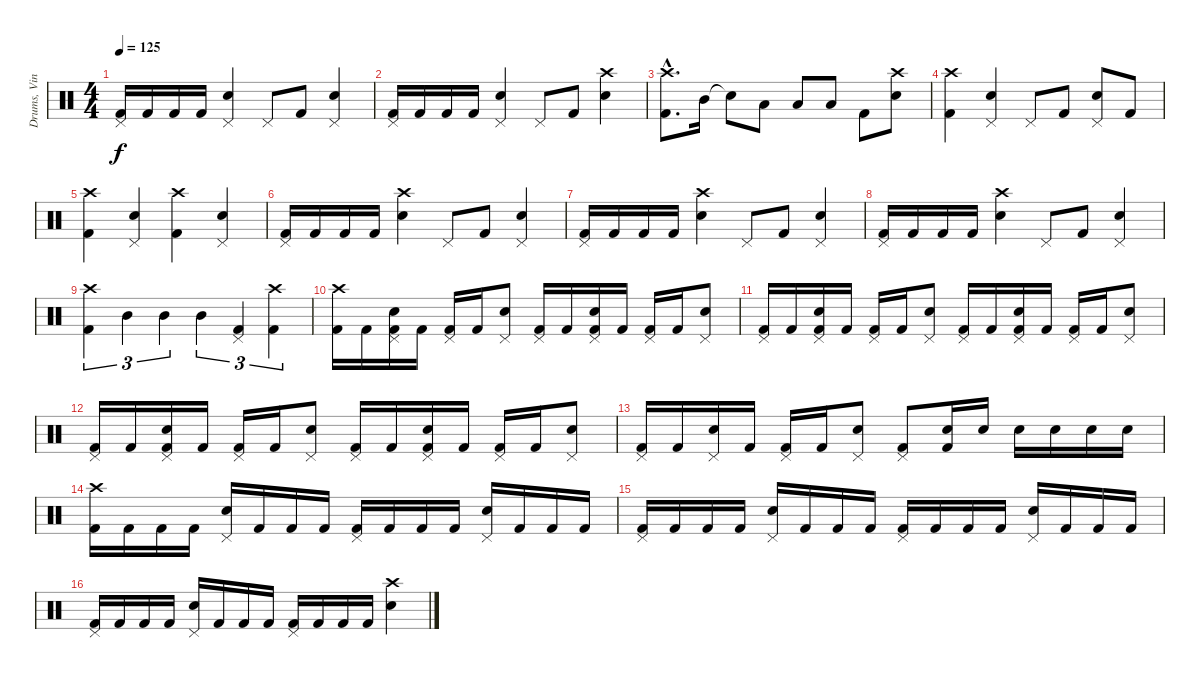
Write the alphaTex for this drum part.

\track ("Drums, Vinnie" "Drums, Vin") {instrument percussion}
\staff {score}
\articulation defaults
\ts (4 4)
\tempo 125
\clef neutral
\ks c
("Pedal Hi-Hat (hit)" "Kick (hit) 2").16{dy f} "Kick (hit) 2".16 "Kick (hit) 2".16 "Kick (hit) 2".16 ("Pedal Hi-Hat (hit)" "Electric Snare (hit)").4 "Pedal Hi-Hat (hit)".8 "Kick (hit) 2".8 ("Pedal Hi-Hat (hit)" "Electric Snare (hit)").4 |
("Pedal Hi-Hat (hit)" "Kick (hit) 2").16 "Kick (hit) 2".16 "Kick (hit) 2".16 "Kick (hit) 2".16 ("Pedal Hi-Hat (hit)" "Electric Snare (hit)").4 "Pedal Hi-Hat (hit)".8 "Kick (hit) 2".8 ("Crash high (hit)" "Electric Snare (hit)").4 |
("Crash high (hit)"{hac} "Kick (hit) 2"{hac}).8{d} "Mid Tom (hit)".16 "Snare (hit)"{t}.8 "Low Tom (hit)".8 "Low Tom (hit)".8 "Low Tom (hit)".8 "Kick (hit) 2".8 ("Crash high (hit)" "Electric Snare (hit)").8 |
("Crash high (hit)" "Kick (hit) 2").4 ("Pedal Hi-Hat (hit)" "Electric Snare (hit)").4 "Pedal Hi-Hat (hit)".8 "Kick (hit) 2".8 ("Pedal Hi-Hat (hit)" "Electric Snare (hit)").8 "Kick (hit) 2".8 |
("Crash high (hit)" "Kick (hit) 2").4 ("Pedal Hi-Hat (hit)" "Electric Snare (hit)").4 ("Crash high (hit)" "Kick (hit) 2").4 ("Pedal Hi-Hat (hit)" "Electric Snare (hit)").4 |
("Pedal Hi-Hat (hit)" "Kick (hit) 2").16 "Kick (hit) 2".16 "Kick (hit) 2".16 "Kick (hit) 2".16 ("Crash high (hit)" "Electric Snare (hit)").4 "Pedal Hi-Hat (hit)".8 "Kick (hit) 2".8 ("Pedal Hi-Hat (hit)" "Electric Snare (hit)").4 |
("Pedal Hi-Hat (hit)" "Kick (hit) 2").16 "Kick (hit) 2".16 "Kick (hit) 2".16 "Kick (hit) 2".16 ("Crash high (hit)" "Electric Snare (hit)").4 "Pedal Hi-Hat (hit)".8 "Kick (hit) 2".8 ("Pedal Hi-Hat (hit)" "Electric Snare (hit)").4 |
("Pedal Hi-Hat (hit)" "Kick (hit) 2").16 "Kick (hit) 2".16 "Kick (hit) 2".16 "Kick (hit) 2".16 ("Crash high (hit)" "Electric Snare (hit)").4 "Pedal Hi-Hat (hit)".8 "Kick (hit) 2".8 ("Pedal Hi-Hat (hit)" "Electric Snare (hit)").4 |
("Crash high (hit)" "Kick (hit) 2").4{tu (3 2)} "Mid Tom (hit)".4{tu (3 2)} "Mid Tom (hit)".4{tu (3 2)} "Mid Tom (hit)".4{tu (3 2)} ("Pedal Hi-Hat (hit)" "Kick (hit) 2").4{tu (3 2)} ("Crash high (hit)" "Kick (hit) 2").4{tu (3 2)} |
("Crash high (hit)" "Kick (hit) 2").16 "Kick (hit) 2".16 ("Pedal Hi-Hat (hit)" "Electric Snare (hit)" "Kick (hit) 2").16 "Kick (hit) 2".16 ("Pedal Hi-Hat (hit)" "Kick (hit) 2").16 "Kick (hit) 2".16 ("Pedal Hi-Hat (hit)" "Electric Snare (hit)").8 ("Pedal Hi-Hat (hit)" "Kick (hit) 2").16 "Kick (hit) 2".16 ("Pedal Hi-Hat (hit)" "Electric Snare (hit)" "Kick (hit) 2").16 "Kick (hit) 2".16 ("Pedal Hi-Hat (hit)" "Kick (hit) 2").16 "Kick (hit) 2".16 ("Pedal Hi-Hat (hit)" "Electric Snare (hit)").8 |
("Pedal Hi-Hat (hit)" "Kick (hit) 2").16 "Kick (hit) 2".16 ("Pedal Hi-Hat (hit)" "Electric Snare (hit)" "Kick (hit) 2").16 "Kick (hit) 2".16 ("Pedal Hi-Hat (hit)" "Kick (hit) 2").16 "Kick (hit) 2".16 ("Pedal Hi-Hat (hit)" "Electric Snare (hit)").8 ("Pedal Hi-Hat (hit)" "Kick (hit) 2").16 "Kick (hit) 2".16 ("Pedal Hi-Hat (hit)" "Electric Snare (hit)" "Kick (hit) 2").16 "Kick (hit) 2".16 ("Pedal Hi-Hat (hit)" "Kick (hit) 2").16 "Kick (hit) 2".16 ("Pedal Hi-Hat (hit)" "Electric Snare (hit)").8 |
("Pedal Hi-Hat (hit)" "Kick (hit) 2").16 "Kick (hit) 2".16 ("Pedal Hi-Hat (hit)" "Electric Snare (hit)" "Kick (hit) 2").16 "Kick (hit) 2".16 ("Pedal Hi-Hat (hit)" "Kick (hit) 2").16 "Kick (hit) 2".16 ("Pedal Hi-Hat (hit)" "Electric Snare (hit)").8 ("Pedal Hi-Hat (hit)" "Kick (hit) 2").16 "Kick (hit) 2".16 ("Pedal Hi-Hat (hit)" "Electric Snare (hit)" "Kick (hit) 2").16 "Kick (hit) 2".16 ("Pedal Hi-Hat (hit)" "Kick (hit) 2").16 "Kick (hit) 2".16 ("Pedal Hi-Hat (hit)" "Electric Snare (hit)").8 |
("Pedal Hi-Hat (hit)" "Kick (hit) 2").16 "Kick (hit) 2".16 ("Pedal Hi-Hat (hit)" "Electric Snare (hit)").16 "Kick (hit) 2".16 ("Pedal Hi-Hat (hit)" "Kick (hit) 2").16 "Kick (hit) 2".16 ("Pedal Hi-Hat (hit)" "Electric Snare (hit)").8 ("Pedal Hi-Hat (hit)" "Kick (hit) 2").8 ("Electric Snare (hit)" "Kick (hit) 2").16 "Electric Snare (hit)".16 "Electric Snare (hit)".16 "Electric Snare (hit)".16 "Electric Snare (hit)".16 "Electric Snare (hit)".16 |
("Crash high (hit)" "Kick (hit) 2").16 "Kick (hit) 2".16 "Kick (hit) 2".16 "Kick (hit) 2".16 ("Pedal Hi-Hat (hit)" "Electric Snare (hit)").16 "Kick (hit) 2".16 "Kick (hit) 2".16 "Kick (hit) 2".16 ("Pedal Hi-Hat (hit)" "Kick (hit) 2").16 "Kick (hit) 2".16 "Kick (hit) 2".16 "Kick (hit) 2".16 ("Pedal Hi-Hat (hit)" "Electric Snare (hit)").16 "Kick (hit) 2".16 "Kick (hit) 2".16 "Kick (hit) 2".16 |
("Pedal Hi-Hat (hit)" "Kick (hit) 2").16 "Kick (hit) 2".16 "Kick (hit) 2".16 "Kick (hit) 2".16 ("Pedal Hi-Hat (hit)" "Electric Snare (hit)").16 "Kick (hit) 2".16 "Kick (hit) 2".16 "Kick (hit) 2".16 ("Pedal Hi-Hat (hit)" "Kick (hit) 2").16 "Kick (hit) 2".16 "Kick (hit) 2".16 "Kick (hit) 2".16 ("Pedal Hi-Hat (hit)" "Electric Snare (hit)").16 "Kick (hit) 2".16 "Kick (hit) 2".16 "Kick (hit) 2".16 |
("Pedal Hi-Hat (hit)" "Kick (hit) 2").16 "Kick (hit) 2".16 "Kick (hit) 2".16 "Kick (hit) 2".16 ("Pedal Hi-Hat (hit)" "Electric Snare (hit)").16 "Kick (hit) 2".16 "Kick (hit) 2".16 "Kick (hit) 2".16 ("Pedal Hi-Hat (hit)" "Kick (hit) 2").16 "Kick (hit) 2".16 "Kick (hit) 2".16 "Kick (hit) 2".16 ("Crash high (hit)" "Electric Snare (hit)").4
